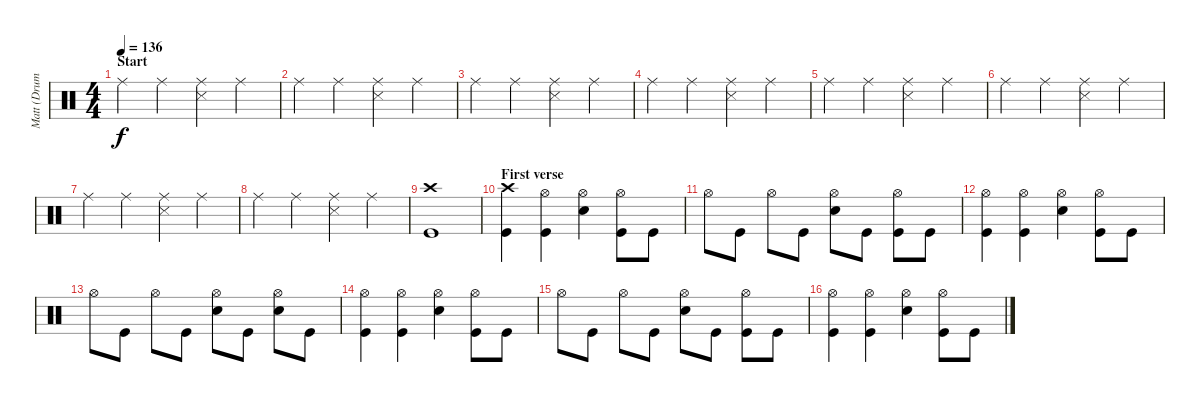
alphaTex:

\track ("Matt (Drums)" "Matt (Drum") {instrument percussion}
\staff {score}
\articulation defaults
\ts (4 4)
\section ("" "Start")
\tempo 136
\clef neutral
\ks c "Ride (middle)".4{dy f} "Ride (middle)".4
("Ride (middle)" "Snare (side stick) 3").4 "Ride (middle)".4 |
"Ride (middle)".4 "Ride (middle)".4 ("Ride (middle)" "Snare (side stick) 3").4 "Ride (middle)".4 |
"Ride (middle)".4 "Ride (middle)".4 ("Ride (middle)" "Snare (side stick) 3").4 "Ride (middle)".4 |
"Ride (middle)".4 "Ride (middle)".4 ("Ride (middle)" "Snare (side stick) 3").4 "Ride (middle)".4 |
"Ride (middle)".4 "Ride (middle)".4 ("Ride (middle)" "Snare (side stick) 3").4 "Ride (middle)".4 |
"Ride (middle)".4 "Ride (middle)".4 ("Ride (middle)" "Snare (side stick) 3").4 "Ride (middle)".4 |
"Ride (middle)".4 "Ride (middle)".4 ("Ride (middle)" "Snare (side stick) 3").4 "Ride (middle)".4 |
"Ride (middle)".4 "Ride (middle)".4 ("Ride (middle)" "Snare (side stick) 3").4 "Ride (middle)".4 |
("Crash high (hit)" "Kick (hit)").1 |
\section ("" "First verse")
("Crash high (hit)" "Kick (hit)").4 ("Hi-Hat (open)" "Kick (hit)").4 ("Hi-Hat (open)" "Electric Snare (hit)").4 ("Hi-Hat (open)" "Kick (hit)").8 "Kick (hit)".8 |
"Hi-Hat (open)".8 "Kick (hit)".8 "Hi-Hat (open)".8 "Kick (hit)".8 ("Hi-Hat (open)" "Electric Snare (hit)").8 "Kick (hit)".8 ("Hi-Hat (open)" "Kick (hit)").8 "Kick (hit)".8 |
("Hi-Hat (open)" "Kick (hit)").4 ("Hi-Hat (open)" "Kick (hit)").4 ("Hi-Hat (open)" "Electric Snare (hit)").4 ("Hi-Hat (open)" "Kick (hit)").8 "Kick (hit)".8 |
"Hi-Hat (open)".8 "Kick (hit)".8 "Hi-Hat (open)".8 "Kick (hit)".8 ("Hi-Hat (open)" "Electric Snare (hit)").8 "Kick (hit)".8 ("Hi-Hat (open)" "Electric Snare (hit)").8 "Kick (hit)".8 |
("Hi-Hat (open)" "Kick (hit)").4 ("Hi-Hat (open)" "Kick (hit)").4 ("Hi-Hat (open)" "Electric Snare (hit)").4 ("Hi-Hat (open)" "Kick (hit)").8 "Kick (hit)".8 |
"Hi-Hat (open)".8 "Kick (hit)".8 "Hi-Hat (open)".8 "Kick (hit)".8 ("Hi-Hat (open)" "Electric Snare (hit)").8 "Kick (hit)".8 ("Hi-Hat (open)" "Kick (hit)").8 "Kick (hit)".8 |
("Hi-Hat (open)" "Kick (hit)").4 ("Hi-Hat (open)" "Kick (hit)").4 ("Hi-Hat (open)" "Electric Snare (hit)").4 ("Hi-Hat (open)" "Kick (hit)").8 "Kick (hit)".8
